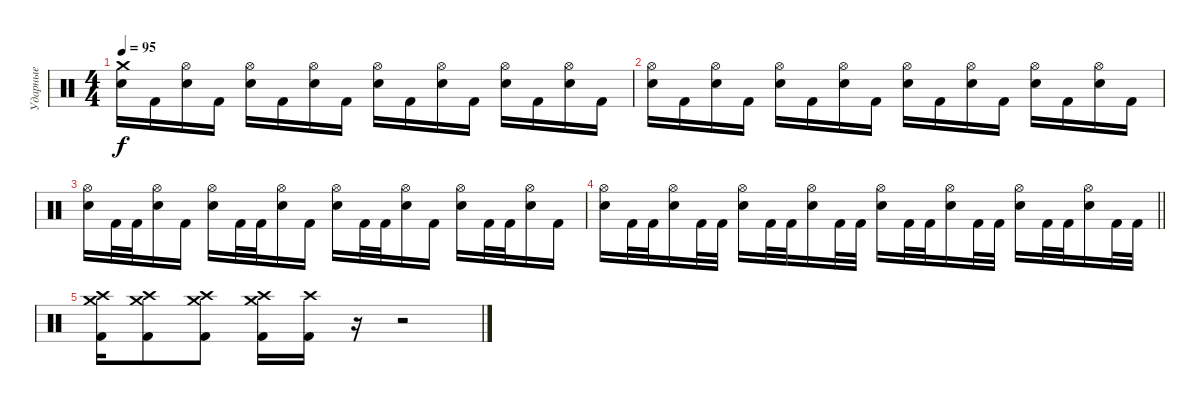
\track ("Ударные" "Ударные") {instrument percussion}
\staff {score}
\articulation defaults
\ts (4 4)
\tempo 95
\clef neutral
\ks c
("Electric Snare (hit)" "Crash medium (hit)").16{dy f} "Kick (hit) 2".16 ("Electric Snare (hit)" "Hi-Hat (open)").16 "Kick (hit) 2".16 ("Electric Snare (hit)" "Hi-Hat (open)").16 "Kick (hit) 2".16 ("Electric Snare (hit)" "Hi-Hat (open)").16 "Kick (hit) 2".16 ("Electric Snare (hit)" "Hi-Hat (open)").16 "Kick (hit) 2".16 ("Electric Snare (hit)" "Hi-Hat (open)").16 "Kick (hit) 2".16 ("Electric Snare (hit)" "Hi-Hat (open)").16 "Kick (hit) 2".16 ("Electric Snare (hit)" "Hi-Hat (open)").16 "Kick (hit) 2".16 |
("Electric Snare (hit)" "Hi-Hat (open)").16 "Kick (hit) 2".16 ("Electric Snare (hit)" "Hi-Hat (open)").16 "Kick (hit) 2".16 ("Electric Snare (hit)" "Hi-Hat (open)").16 "Kick (hit) 2".16 ("Electric Snare (hit)" "Hi-Hat (open)").16 "Kick (hit) 2".16 ("Electric Snare (hit)" "Hi-Hat (open)").16 "Kick (hit) 2".16 ("Electric Snare (hit)" "Hi-Hat (open)").16 "Kick (hit) 2".16 ("Electric Snare (hit)" "Hi-Hat (open)").16 "Kick (hit) 2".16 ("Electric Snare (hit)" "Hi-Hat (open)").16 "Kick (hit) 2".16 |
("Electric Snare (hit)" "Hi-Hat (open)").16 "Kick (hit) 2".32 "Kick (hit) 2".32 ("Electric Snare (hit)" "Hi-Hat (open)").16 "Kick (hit) 2".16 ("Electric Snare (hit)" "Hi-Hat (open)").16 "Kick (hit) 2".32 "Kick (hit) 2".32 ("Electric Snare (hit)" "Hi-Hat (open)").16 "Kick (hit) 2".16 ("Electric Snare (hit)" "Hi-Hat (open)").16 "Kick (hit) 2".32 "Kick (hit) 2".32 ("Electric Snare (hit)" "Hi-Hat (open)").16 "Kick (hit) 2".16 ("Electric Snare (hit)" "Hi-Hat (open)").16 "Kick (hit) 2".32 "Kick (hit) 2".32 ("Electric Snare (hit)" "Hi-Hat (open)").16 "Kick (hit) 2".16 |
\barLineRight lightlight
("Electric Snare (hit)" "Hi-Hat (open)").16 "Kick (hit) 2".32 "Kick (hit) 2".32 ("Electric Snare (hit)" "Hi-Hat (open)").16 "Kick (hit) 2".32 "Kick (hit) 2".32 ("Electric Snare (hit)" "Hi-Hat (open)").16 "Kick (hit) 2".32 "Kick (hit) 2".32 ("Electric Snare (hit)" "Hi-Hat (open)").16 "Kick (hit) 2".32 "Kick (hit) 2".32 ("Electric Snare (hit)" "Hi-Hat (open)").16 "Kick (hit) 2".32 "Kick (hit) 2".32 ("Electric Snare (hit)" "Hi-Hat (open)").16 "Kick (hit) 2".32 "Kick (hit) 2".32 ("Electric Snare (hit)" "Hi-Hat (open)").16 "Kick (hit) 2".32 "Kick (hit) 2".32 ("Electric Snare (hit)" "Hi-Hat (open)").16 "Kick (hit) 2".32 "Kick (hit) 2".32 |
("Kick (hit) 2" "Crash high (hit)" "Crash medium (hit)").16 ("Kick (hit) 2" "Crash high (hit)" "Crash medium (hit)").8 ("Kick (hit) 2" "Crash high (hit)" "Crash medium (hit)").8 ("Kick (hit) 2" "Crash high (hit)" "Crash medium (hit)").16 ("Kick (hit) 2" "Crash high (hit)").16 r.16 r.2
